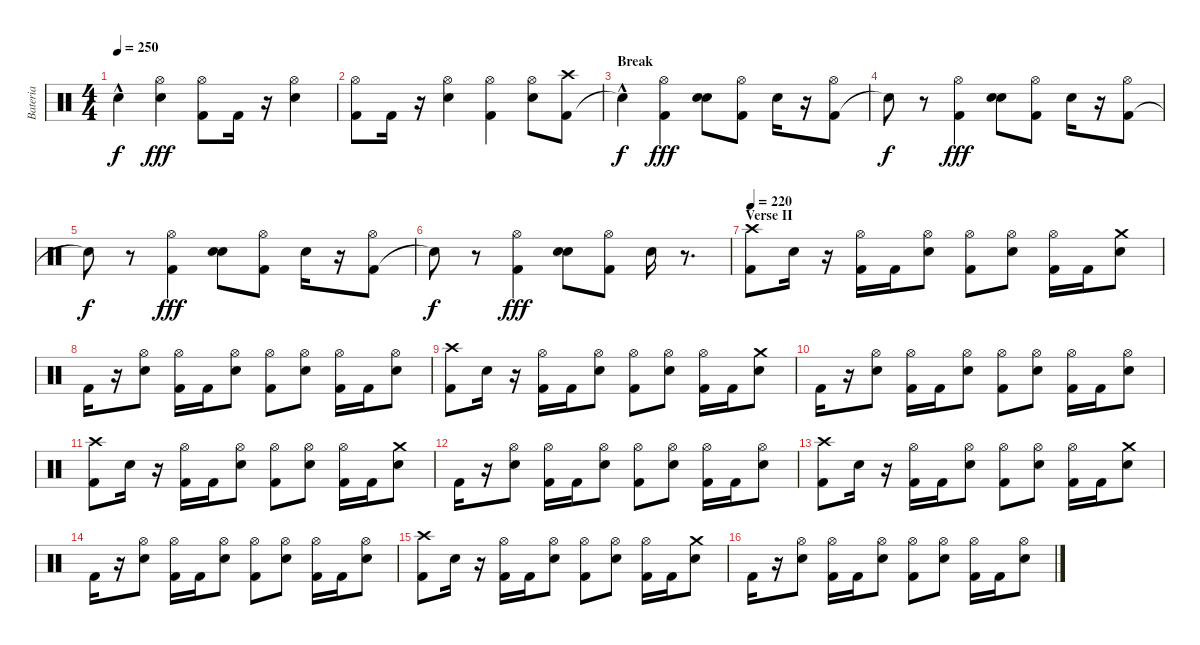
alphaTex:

\track ("Bateria" "Bateria") {instrument percussion}
\staff {score}
\articulation defaults
\ts (4 4)
\tempo 250
\clef neutral
\ks c "Snare (hit)"{hac t}.4{dy f}
("Electric Snare (hit)" "Hi-Hat (open)").4{dy fff} ("Kick (hit) 2" "Hi-Hat (open)").8 "Kick (hit) 2".16 r.16 ("Electric Snare (hit)" "Hi-Hat (open)").4 |
("Kick (hit) 2" "Hi-Hat (open)").8 "Kick (hit) 2".16 r.16 ("Electric Snare (hit)" "Hi-Hat (open)").4 ("Kick (hit) 2" "Hi-Hat (open)").4 ("Electric Snare (hit)" "Hi-Hat (open)").8 ("Kick (hit) 2" "Crash high (hit)").8 |
\section ("" "Break")
"Snare (hit)"{hac t}.4{dy f} ("Kick (hit) 2" "Hi-Hat (open)").4{dy fff} ("Electric Snare (hit)" "Electric Snare (hit)").8 ("Kick (hit) 2" "Hi-Hat (open)").8 "Electric Snare (hit)".16 r.16 ("Kick (hit) 2" "Hi-Hat (open)").8 |
"Snare (hit)"{t}.8{dy f} r.8 ("Kick (hit) 2" "Hi-Hat (open)").4{dy fff} ("Electric Snare (hit)" "Electric Snare (hit)").8 ("Kick (hit) 2" "Hi-Hat (open)").8 "Electric Snare (hit)".16 r.16 ("Kick (hit) 2" "Hi-Hat (open)").8 |
"Snare (hit)"{t}.8{dy f} r.8 ("Kick (hit) 2" "Hi-Hat (open)").4{dy fff} ("Electric Snare (hit)" "Electric Snare (hit)").8 ("Kick (hit) 2" "Hi-Hat (open)").8 "Electric Snare (hit)".16 r.16 ("Kick (hit) 2" "Hi-Hat (open)").8 |
"Snare (hit)"{t}.8{dy f} r.8 ("Kick (hit) 2" "Hi-Hat (open)").4{dy fff} ("Electric Snare (hit)" "Electric Snare (hit)").8 ("Kick (hit) 2" "Hi-Hat (open)").8 "Electric Snare (hit)".16 r.8{d} |
\section ("" "Verse II")
\tempo 220
("Kick (hit) 2" "Crash high (hit)").8 "Electric Snare (hit)".16 r.16 ("Kick (hit) 2" "Hi-Hat (open)").16 "Kick (hit) 2".16 ("Electric Snare (hit)" "Hi-Hat (open)").8 ("Kick (hit) 2" "Hi-Hat (open)").8 ("Electric Snare (hit)" "Hi-Hat (open)").8 ("Kick (hit) 2" "Hi-Hat (open)").16 "Kick (hit) 2".16 ("Electric Snare (hit)" "Crash medium (hit)").8 |
"Kick (hit) 2".16 r.16 ("Electric Snare (hit)" "Hi-Hat (open)").8 ("Kick (hit) 2" "Hi-Hat (open)").16 "Kick (hit) 2".16 ("Electric Snare (hit)" "Hi-Hat (open)").8 ("Kick (hit) 2" "Hi-Hat (open)").8 ("Electric Snare (hit)" "Hi-Hat (open)").8 ("Kick (hit) 2" "Hi-Hat (open)").16 "Kick (hit) 2".16 ("Electric Snare (hit)" "Hi-Hat (open)").8 |
("Kick (hit) 2" "Crash high (hit)").8 "Electric Snare (hit)".16 r.16 ("Kick (hit) 2" "Hi-Hat (open)").16 "Kick (hit) 2".16 ("Electric Snare (hit)" "Hi-Hat (open)").8 ("Kick (hit) 2" "Hi-Hat (open)").8 ("Electric Snare (hit)" "Hi-Hat (open)").8 ("Kick (hit) 2" "Hi-Hat (open)").16 "Kick (hit) 2".16 ("Electric Snare (hit)" "Crash medium (hit)").8 |
"Kick (hit) 2".16 r.16 ("Electric Snare (hit)" "Hi-Hat (open)").8 ("Kick (hit) 2" "Hi-Hat (open)").16 "Kick (hit) 2".16 ("Electric Snare (hit)" "Hi-Hat (open)").8 ("Kick (hit) 2" "Hi-Hat (open)").8 ("Electric Snare (hit)" "Hi-Hat (open)").8 ("Kick (hit) 2" "Hi-Hat (open)").16 "Kick (hit) 2".16 ("Electric Snare (hit)" "Hi-Hat (open)").8 |
("Kick (hit) 2" "Crash high (hit)").8 "Electric Snare (hit)".16 r.16 ("Kick (hit) 2" "Hi-Hat (open)").16 "Kick (hit) 2".16 ("Electric Snare (hit)" "Hi-Hat (open)").8 ("Kick (hit) 2" "Hi-Hat (open)").8 ("Electric Snare (hit)" "Hi-Hat (open)").8 ("Kick (hit) 2" "Hi-Hat (open)").16 "Kick (hit) 2".16 ("Electric Snare (hit)" "Crash medium (hit)").8 |
"Kick (hit) 2".16 r.16 ("Electric Snare (hit)" "Hi-Hat (open)").8 ("Kick (hit) 2" "Hi-Hat (open)").16 "Kick (hit) 2".16 ("Electric Snare (hit)" "Hi-Hat (open)").8 ("Kick (hit) 2" "Hi-Hat (open)").8 ("Electric Snare (hit)" "Hi-Hat (open)").8 ("Kick (hit) 2" "Hi-Hat (open)").16 "Kick (hit) 2".16 ("Electric Snare (hit)" "Hi-Hat (open)").8 |
("Kick (hit) 2" "Crash high (hit)").8 "Electric Snare (hit)".16 r.16 ("Kick (hit) 2" "Hi-Hat (open)").16 "Kick (hit) 2".16 ("Electric Snare (hit)" "Hi-Hat (open)").8 ("Kick (hit) 2" "Hi-Hat (open)").8 ("Electric Snare (hit)" "Hi-Hat (open)").8 ("Kick (hit) 2" "Hi-Hat (open)").16 "Kick (hit) 2".16 ("Electric Snare (hit)" "Crash medium (hit)").8 |
"Kick (hit) 2".16 r.16 ("Electric Snare (hit)" "Hi-Hat (open)").8 ("Kick (hit) 2" "Hi-Hat (open)").16 "Kick (hit) 2".16 ("Electric Snare (hit)" "Hi-Hat (open)").8 ("Kick (hit) 2" "Hi-Hat (open)").8 ("Electric Snare (hit)" "Hi-Hat (open)").8 ("Kick (hit) 2" "Hi-Hat (open)").16 "Kick (hit) 2".16 ("Electric Snare (hit)" "Hi-Hat (open)").8 |
("Kick (hit) 2" "Crash high (hit)").8 "Electric Snare (hit)".16 r.16 ("Kick (hit) 2" "Hi-Hat (open)").16 "Kick (hit) 2".16 ("Electric Snare (hit)" "Hi-Hat (open)").8 ("Kick (hit) 2" "Hi-Hat (open)").8 ("Electric Snare (hit)" "Hi-Hat (open)").8 ("Kick (hit) 2" "Hi-Hat (open)").16 "Kick (hit) 2".16 ("Electric Snare (hit)" "Crash medium (hit)").8 |
"Kick (hit) 2".16 r.16 ("Electric Snare (hit)" "Hi-Hat (open)").8 ("Kick (hit) 2" "Hi-Hat (open)").16 "Kick (hit) 2".16 ("Electric Snare (hit)" "Hi-Hat (open)").8 ("Kick (hit) 2" "Hi-Hat (open)").8 ("Electric Snare (hit)" "Hi-Hat (open)").8 ("Kick (hit) 2" "Hi-Hat (open)").16 "Kick (hit) 2".16 ("Electric Snare (hit)" "Hi-Hat (open)").8
